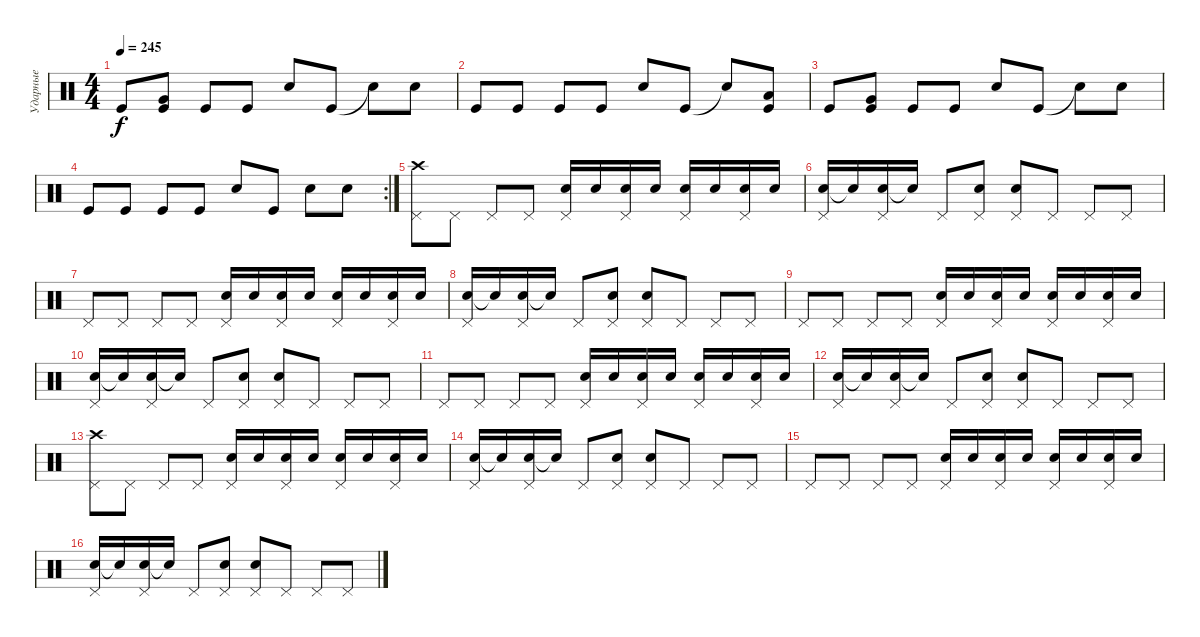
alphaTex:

\track ("Ударные" "Ударные") {instrument percussion}
\staff {score}
\articulation defaults
\ts (4 4)
\tempo 245
\clef neutral
\ks c "Kick (hit)".8{dy f}
("Kick (hit)" "Very Low Tom (hit)").8 "Kick (hit)".8 "Kick (hit)".8 "Electric Snare (hit)".8 "Kick (hit)".8 "Snare (hit)"{t}.8 "Electric Snare (hit)".8 |
"Kick (hit)".8 "Kick (hit)".8 "Kick (hit)".8 "Kick (hit)".8 "Electric Snare (hit)".8 "Kick (hit)".8 "Snare (hit)"{t}.8 ("Kick (hit)" "Low Tom (hit)").8 |
"Kick (hit)".8 ("Kick (hit)" "Very Low Tom (hit)").8 "Kick (hit)".8 "Kick (hit)".8 "Electric Snare (hit)".8 "Kick (hit)".8 "Snare (hit)"{t}.8 "Electric Snare (hit)".8 |
\rc 2 "Kick (hit)".8 "Kick (hit)".8 "Kick (hit)".8 "Kick (hit)".8 "Electric Snare (hit)".8 "Kick (hit)".8 "Electric Snare (hit)".8 "Electric Snare (hit)".8
|
("Crash high (hit)" "Pedal Hi-Hat (hit)").8{volume 9} "Pedal Hi-Hat (hit)".8 "Pedal Hi-Hat (hit)".8 "Pedal Hi-Hat (hit)".8 ("Electric Snare (hit)" "Pedal Hi-Hat (hit)").16 "Electric Snare (hit)".16 ("Electric Snare (hit)" "Pedal Hi-Hat (hit)").16 "Electric Snare (hit)".16 ("Electric Snare (hit)" "Pedal Hi-Hat (hit)").16 "Electric Snare (hit)".16 ("Electric Snare (hit)" "Pedal Hi-Hat (hit)").16 "Electric Snare (hit)".16 |
("Electric Snare (hit)" "Pedal Hi-Hat (hit)").16 "Snare (hit)"{t}.16 ("Electric Snare (hit)" "Pedal Hi-Hat (hit)").16 "Snare (hit)"{t}.16 "Pedal Hi-Hat (hit)".8 ("Electric Snare (hit)" "Pedal Hi-Hat (hit)").8 ("Electric Snare (hit)" "Pedal Hi-Hat (hit)").8 "Pedal Hi-Hat (hit)".8 "Pedal Hi-Hat (hit)".8 "Pedal Hi-Hat (hit)".8 |
"Pedal Hi-Hat (hit)".8 "Pedal Hi-Hat (hit)".8 "Pedal Hi-Hat (hit)".8 "Pedal Hi-Hat (hit)".8 ("Electric Snare (hit)" "Pedal Hi-Hat (hit)").16 "Electric Snare (hit)".16 ("Electric Snare (hit)" "Pedal Hi-Hat (hit)").16 "Electric Snare (hit)".16 ("Electric Snare (hit)" "Pedal Hi-Hat (hit)").16 "Electric Snare (hit)".16 ("Electric Snare (hit)" "Pedal Hi-Hat (hit)").16 "Electric Snare (hit)".16 |
("Electric Snare (hit)" "Pedal Hi-Hat (hit)").16 "Snare (hit)"{t}.16 ("Electric Snare (hit)" "Pedal Hi-Hat (hit)").16 "Snare (hit)"{t}.16 "Pedal Hi-Hat (hit)".8 ("Electric Snare (hit)" "Pedal Hi-Hat (hit)").8 ("Electric Snare (hit)" "Pedal Hi-Hat (hit)").8 "Pedal Hi-Hat (hit)".8 "Pedal Hi-Hat (hit)".8 "Pedal Hi-Hat (hit)".8 |
"Pedal Hi-Hat (hit)".8 "Pedal Hi-Hat (hit)".8 "Pedal Hi-Hat (hit)".8 "Pedal Hi-Hat (hit)".8 ("Electric Snare (hit)" "Pedal Hi-Hat (hit)").16 "Electric Snare (hit)".16 ("Electric Snare (hit)" "Pedal Hi-Hat (hit)").16 "Electric Snare (hit)".16 ("Electric Snare (hit)" "Pedal Hi-Hat (hit)").16 "Electric Snare (hit)".16 ("Electric Snare (hit)" "Pedal Hi-Hat (hit)").16 "Electric Snare (hit)".16 |
("Electric Snare (hit)" "Pedal Hi-Hat (hit)").16 "Snare (hit)"{t}.16 ("Electric Snare (hit)" "Pedal Hi-Hat (hit)").16 "Snare (hit)"{t}.16 "Pedal Hi-Hat (hit)".8 ("Electric Snare (hit)" "Pedal Hi-Hat (hit)").8 ("Electric Snare (hit)" "Pedal Hi-Hat (hit)").8 "Pedal Hi-Hat (hit)".8 "Pedal Hi-Hat (hit)".8 "Pedal Hi-Hat (hit)".8 |
"Pedal Hi-Hat (hit)".8 "Pedal Hi-Hat (hit)".8 "Pedal Hi-Hat (hit)".8 "Pedal Hi-Hat (hit)".8 ("Electric Snare (hit)" "Pedal Hi-Hat (hit)").16 "Electric Snare (hit)".16 ("Electric Snare (hit)" "Pedal Hi-Hat (hit)").16 "Electric Snare (hit)".16 ("Electric Snare (hit)" "Pedal Hi-Hat (hit)").16 "Electric Snare (hit)".16 ("Electric Snare (hit)" "Pedal Hi-Hat (hit)").16 "Electric Snare (hit)".16 |
("Electric Snare (hit)" "Pedal Hi-Hat (hit)").16 "Snare (hit)"{t}.16 ("Electric Snare (hit)" "Pedal Hi-Hat (hit)").16 "Snare (hit)"{t}.16 "Pedal Hi-Hat (hit)".8 ("Electric Snare (hit)" "Pedal Hi-Hat (hit)").8 ("Electric Snare (hit)" "Pedal Hi-Hat (hit)").8 "Pedal Hi-Hat (hit)".8 "Pedal Hi-Hat (hit)".8 "Pedal Hi-Hat (hit)".8 |
("Crash high (hit)" "Pedal Hi-Hat (hit)").8 "Pedal Hi-Hat (hit)".8 "Pedal Hi-Hat (hit)".8 "Pedal Hi-Hat (hit)".8 ("Electric Snare (hit)" "Pedal Hi-Hat (hit)").16 "Electric Snare (hit)".16 ("Electric Snare (hit)" "Pedal Hi-Hat (hit)").16 "Electric Snare (hit)".16 ("Electric Snare (hit)" "Pedal Hi-Hat (hit)").16 "Electric Snare (hit)".16 ("Electric Snare (hit)" "Pedal Hi-Hat (hit)").16 "Electric Snare (hit)".16 |
("Electric Snare (hit)" "Pedal Hi-Hat (hit)").16 "Snare (hit)"{t}.16 ("Electric Snare (hit)" "Pedal Hi-Hat (hit)").16 "Snare (hit)"{t}.16 "Pedal Hi-Hat (hit)".8 ("Electric Snare (hit)" "Pedal Hi-Hat (hit)").8 ("Electric Snare (hit)" "Pedal Hi-Hat (hit)").8 "Pedal Hi-Hat (hit)".8 "Pedal Hi-Hat (hit)".8 "Pedal Hi-Hat (hit)".8 |
"Pedal Hi-Hat (hit)".8 "Pedal Hi-Hat (hit)".8 "Pedal Hi-Hat (hit)".8 "Pedal Hi-Hat (hit)".8 ("Electric Snare (hit)" "Pedal Hi-Hat (hit)").16 "Electric Snare (hit)".16 ("Electric Snare (hit)" "Pedal Hi-Hat (hit)").16 "Electric Snare (hit)".16 ("Electric Snare (hit)" "Pedal Hi-Hat (hit)").16 "Electric Snare (hit)".16 ("Electric Snare (hit)" "Pedal Hi-Hat (hit)").16 "Electric Snare (hit)".16 |
("Electric Snare (hit)" "Pedal Hi-Hat (hit)").16 "Snare (hit)"{t}.16 ("Electric Snare (hit)" "Pedal Hi-Hat (hit)").16 "Snare (hit)"{t}.16 "Pedal Hi-Hat (hit)".8 ("Electric Snare (hit)" "Pedal Hi-Hat (hit)").8 ("Electric Snare (hit)" "Pedal Hi-Hat (hit)").8 "Pedal Hi-Hat (hit)".8 "Pedal Hi-Hat (hit)".8 "Pedal Hi-Hat (hit)".8
